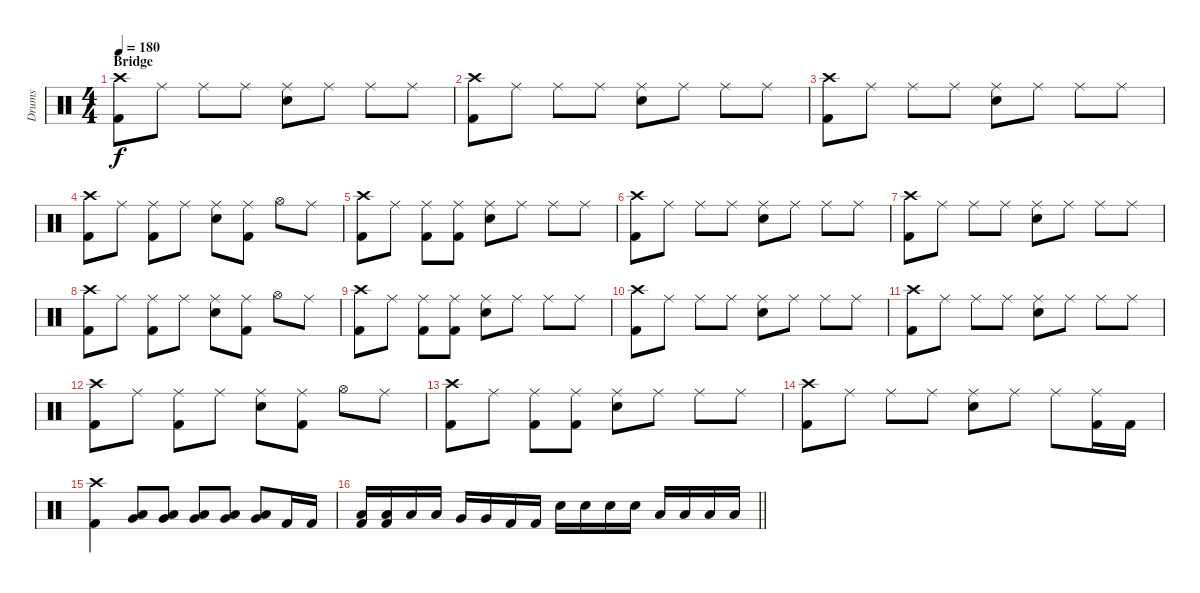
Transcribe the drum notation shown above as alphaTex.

\track ("Drums" "Drums") {instrument percussion}
\staff {score}
\articulation defaults
\ts (4 4)
\section ("" "Bridge")
\tempo 180
\clef neutral
\ks c
("Crash high (hit)" "Kick (hit) 2").8{dy f} "Ride (middle)".8 "Ride (middle)".8 "Ride (middle)".8 ("Ride (middle)" "Electric Snare (hit)").8 "Ride (middle)".8 "Ride (middle)".8 "Ride (middle)".8 |
("Crash high (hit)" "Kick (hit) 2").8 "Ride (middle)".8 "Ride (middle)".8 "Ride (middle)".8 ("Ride (middle)" "Electric Snare (hit)").8 "Ride (middle)".8 "Ride (middle)".8 "Ride (middle)".8 |
("Crash high (hit)" "Kick (hit) 2").8 "Ride (middle)".8 "Ride (middle)".8 "Ride (middle)".8 ("Ride (middle)" "Electric Snare (hit)").8 "Ride (middle)".8 "Ride (middle)".8 "Ride (middle)".8 |
("Crash high (hit)" "Kick (hit) 2").8 "Ride (middle)".8 ("Ride (middle)" "Kick (hit) 2").8 "Ride (middle)".8 ("Ride (middle)" "Electric Snare (hit)").8 ("Ride (middle)" "Kick (hit) 2").8 "Hi-Hat (open)".8 "Ride (middle)".8 |
("Crash high (hit)" "Kick (hit) 2").8 "Ride (middle)".8 ("Ride (middle)" "Kick (hit) 2").8 ("Ride (middle)" "Kick (hit) 2").8 ("Ride (middle)" "Electric Snare (hit)").8 "Ride (middle)".8 "Ride (middle)".8 "Ride (middle)".8 |
("Crash high (hit)" "Kick (hit) 2").8 "Ride (middle)".8 "Ride (middle)".8 "Ride (middle)".8 ("Ride (middle)" "Electric Snare (hit)").8 "Ride (middle)".8 "Ride (middle)".8 "Ride (middle)".8 |
("Crash high (hit)" "Kick (hit) 2").8 "Ride (middle)".8 "Ride (middle)".8 "Ride (middle)".8 ("Ride (middle)" "Electric Snare (hit)").8 "Ride (middle)".8 "Ride (middle)".8 "Ride (middle)".8 |
("Crash high (hit)" "Kick (hit) 2").8 "Ride (middle)".8 ("Ride (middle)" "Kick (hit) 2").8 "Ride (middle)".8 ("Ride (middle)" "Electric Snare (hit)").8 ("Ride (middle)" "Kick (hit) 2").8 "Hi-Hat (open)".8 "Ride (middle)".8 |
("Crash high (hit)" "Kick (hit) 2").8 "Ride (middle)".8 ("Ride (middle)" "Kick (hit) 2").8 ("Ride (middle)" "Kick (hit) 2").8 ("Ride (middle)" "Electric Snare (hit)").8 "Ride (middle)".8 "Ride (middle)".8 "Ride (middle)".8 |
("Crash high (hit)" "Kick (hit) 2").8 "Ride (middle)".8 "Ride (middle)".8 "Ride (middle)".8 ("Ride (middle)" "Electric Snare (hit)").8 "Ride (middle)".8 "Ride (middle)".8 "Ride (middle)".8 |
("Crash high (hit)" "Kick (hit) 2").8 "Ride (middle)".8 "Ride (middle)".8 "Ride (middle)".8 ("Ride (middle)" "Electric Snare (hit)").8 "Ride (middle)".8 "Ride (middle)".8 "Ride (middle)".8 |
("Crash high (hit)" "Kick (hit) 2").8 "Ride (middle)".8 ("Ride (middle)" "Kick (hit) 2").8 "Ride (middle)".8 ("Ride (middle)" "Electric Snare (hit)").8 ("Ride (middle)" "Kick (hit) 2").8 "Hi-Hat (open)".8 "Ride (middle)".8 |
("Crash high (hit)" "Kick (hit) 2").8 "Ride (middle)".8 ("Ride (middle)" "Kick (hit) 2").8 ("Ride (middle)" "Kick (hit) 2").8 ("Ride (middle)" "Electric Snare (hit)").8 "Ride (middle)".8 "Ride (middle)".8 "Ride (middle)".8 |
("Crash high (hit)" "Kick (hit) 2").8 "Ride (middle)".8 "Ride (middle)".8 "Ride (middle)".8 ("Ride (middle)" "Electric Snare (hit)").8 "Ride (middle)".8 "Ride (middle)".8 ("Ride (middle)" "Kick (hit) 2").16 "Kick (hit) 2".16 |
("Crash high (hit)" "Kick (hit) 2").4 ("Very Low Tom (hit)" "Low Floor Tom (hit)").8 ("Very Low Tom (hit)" "Low Floor Tom (hit)").8 ("Very Low Tom (hit)" "Low Floor Tom (hit)").8 ("Very Low Tom (hit)" "Low Floor Tom (hit)").8 ("Very Low Tom (hit)" "Low Floor Tom (hit)").8 "Kick (hit) 2".16 "Kick (hit) 2".16 |
\barLineRight lightlight
("Low Tom (hit)" "Kick (hit) 2").16 ("Low Tom (hit)" "Kick (hit) 2").16 "Low Tom (hit)".16 "Low Tom (hit)".16 "Very Low Tom (hit)".16 "Very Low Tom (hit)".16 "Kick (hit) 2".16 "Kick (hit) 2".16 "Electric Snare (hit)".16 "Electric Snare (hit)".16 "Electric Snare (hit)".16 "Electric Snare (hit)".16 "Low Tom (hit)".16 "Low Tom (hit)".16 "Low Tom (hit)".16 "Low Tom (hit)".16
